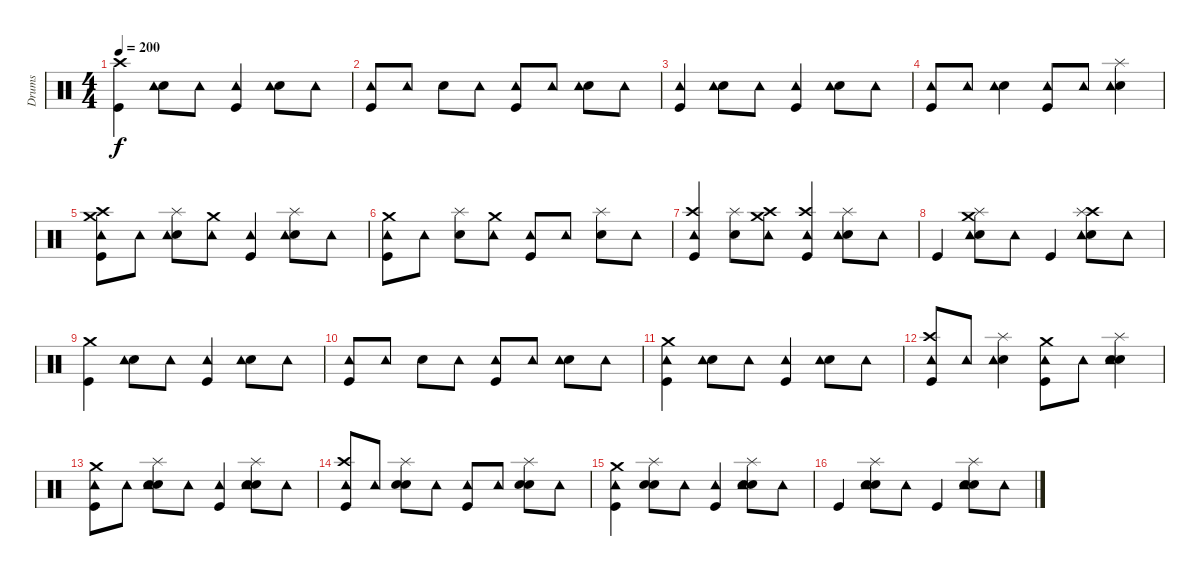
\track ("Drums" "Drums") {instrument percussion}
\staff {score}
\articulation defaults
\ts (4 4)
\tempo 200
\clef neutral
\ks c
("Kick (hit)" "Crash high (hit)").4{dy f} ("Snare (hit) 2" "Tambourine (hit)").8 "Tambourine (hit)".8 ("Kick (hit)" "Tambourine (hit)").4 ("Snare (hit) 2" "Tambourine (hit)").8 "Tambourine (hit)".8 |
("Kick (hit)" "Tambourine (hit)").8 "Tambourine (hit)".8 "Snare (hit) 2".8 "Tambourine (hit)".8 ("Kick (hit)" "Tambourine (hit)").8 "Tambourine (hit)".8 ("Snare (hit) 2" "Tambourine (hit)").8 "Tambourine (hit)".8 |
("Kick (hit)" "Tambourine (hit)").4 ("Snare (hit) 2" "Tambourine (hit)").8 "Tambourine (hit)".8 ("Kick (hit)" "Tambourine (hit)").4 ("Snare (hit) 2" "Tambourine (hit)").8 "Tambourine (hit)".8 |
("Kick (hit)" "Tambourine (hit)").8 "Tambourine (hit)".8 ("Snare (hit) 2" "Tambourine (hit)").4 ("Kick (hit)" "Tambourine (hit)").8 "Tambourine (hit)".8 ("Snare (hit) 2" "Tambourine (hit)" "Splash (hit)").4 |
("Kick (hit)" "Crash high (hit)" "Tambourine (hit)" "Crash medium (hit)").8 "Tambourine (hit)".8 ("Snare (hit) 2" "Tambourine (hit)" "Splash (hit)").8 ("Tambourine (hit)" "Crash medium (hit)").8 ("Kick (hit)" "Tambourine (hit)").4 ("Snare (hit) 2" "Tambourine (hit)" "Splash (hit)").8 "Tambourine (hit)".8 |
("Kick (hit)" "Tambourine (hit)" "Crash medium (hit)").8 "Tambourine (hit)".8 ("Snare (hit) 2" "Splash (hit)").8 ("Tambourine (hit)" "Crash medium (hit)").8 ("Kick (hit)" "Tambourine (hit)").8 "Tambourine (hit)".8 ("Snare (hit) 2" "Splash (hit)").8 "Tambourine (hit)".8 |
("Kick (hit)" "Crash high (hit)" "Tambourine (hit)").4 ("Snare (hit) 2" "Splash (hit)").8 ("Crash high (hit)" "Tambourine (hit)" "Crash medium (hit)").8 ("Kick (hit)" "Crash high (hit)" "Tambourine (hit)").4 ("Snare (hit) 2" "Tambourine (hit)" "Splash (hit)").8 "Tambourine (hit)".8 |
"Kick (hit)".4 ("Snare (hit) 2" "Tambourine (hit)" "Splash (hit)" "Crash medium (hit)").8 "Tambourine (hit)".8 "Kick (hit)".4 ("Snare (hit) 2" "Crash high (hit)" "Tambourine (hit)" "Splash (hit)").8 "Tambourine (hit)".8 |
("Kick (hit)" "Crash medium (hit)").4 ("Snare (hit) 2" "Tambourine (hit)").8 "Tambourine (hit)".8 ("Kick (hit)" "Tambourine (hit)").4 ("Snare (hit) 2" "Tambourine (hit)").8 "Tambourine (hit)".8 |
("Kick (hit)" "Tambourine (hit)").8 "Tambourine (hit)".8 "Snare (hit) 2".8 "Tambourine (hit)".8 ("Kick (hit)" "Tambourine (hit)").8 "Tambourine (hit)".8 ("Snare (hit) 2" "Tambourine (hit)").8 "Tambourine (hit)".8 |
("Kick (hit)" "Tambourine (hit)" "Crash medium (hit)").4 ("Snare (hit) 2" "Tambourine (hit)").8 "Tambourine (hit)".8 ("Kick (hit)" "Tambourine (hit)").4 ("Snare (hit) 2" "Tambourine (hit)").8 "Tambourine (hit)".8 |
("Kick (hit)" "Crash high (hit)" "Tambourine (hit)").8 "Tambourine (hit)".8 ("Snare (hit) 2" "Tambourine (hit)" "Splash (hit)").4 ("Kick (hit)" "Tambourine (hit)" "Crash medium (hit)").8 "Tambourine (hit)".8 ("Snare (hit) 2" "Electric Snare (hit)" "Tambourine (hit)" "Splash (hit)").4 |
("Kick (hit)" "Tambourine (hit)" "Crash medium (hit)").8 "Tambourine (hit)".8 ("Snare (hit) 2" "Electric Snare (hit)" "Tambourine (hit)" "Splash (hit)").8 "Tambourine (hit)".8 ("Kick (hit)" "Tambourine (hit)").4 ("Snare (hit) 2" "Electric Snare (hit)" "Tambourine (hit)" "Splash (hit)").8 "Tambourine (hit)".8 |
("Kick (hit)" "Crash high (hit)" "Tambourine (hit)").8 "Tambourine (hit)".8 ("Snare (hit) 2" "Electric Snare (hit)" "Splash (hit)").8 "Tambourine (hit)".8 ("Kick (hit)" "Tambourine (hit)").8 "Tambourine (hit)".8 ("Snare (hit) 2" "Electric Snare (hit)" "Splash (hit)").8 "Tambourine (hit)".8 |
("Kick (hit)" "Tambourine (hit)" "Crash medium (hit)").4 ("Snare (hit) 2" "Electric Snare (hit)" "Splash (hit)").8 "Tambourine (hit)".8 ("Kick (hit)" "Tambourine (hit)").4 ("Snare (hit) 2" "Electric Snare (hit)" "Tambourine (hit)" "Splash (hit)").8 "Tambourine (hit)".8 |
"Kick (hit)".4 ("Snare (hit) 2" "Electric Snare (hit)" "Tambourine (hit)" "Splash (hit)").8 "Tambourine (hit)".8 "Kick (hit)".4 ("Snare (hit) 2" "Electric Snare (hit)" "Tambourine (hit)" "Splash (hit)").8 "Tambourine (hit)".8
